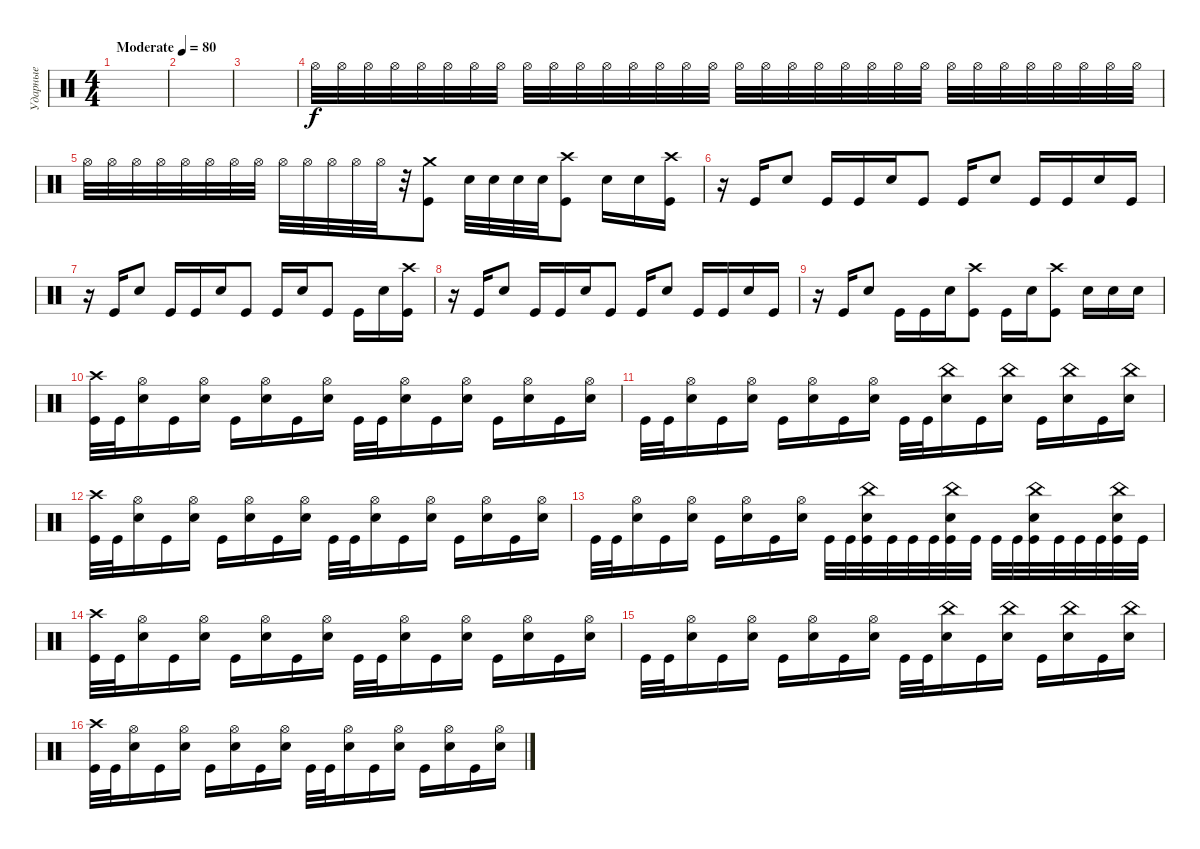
\track ("Ударные" "Ударные") {instrument percussion}
\staff {score}
\articulation defaults
\ts (4 4)
\tempo (80 "Moderate")
\clef neutral
\ks c
|
|
|
"Hi-Hat (open)".32{volume 13} "Hi-Hat (open)".32{volume 7} "Hi-Hat (open)".32 "Hi-Hat (open)".32 "Hi-Hat (open)".32{volume 13} "Hi-Hat (open)".32{volume 7} "Hi-Hat (open)".32 "Hi-Hat (open)".32 "Hi-Hat (open)".32{volume 13} "Hi-Hat (open)".32{volume 7} "Hi-Hat (open)".32 "Hi-Hat (open)".32 "Hi-Hat (open)".32{volume 13} "Hi-Hat (open)".32{volume 7} "Hi-Hat (open)".32 "Hi-Hat (open)".32 "Hi-Hat (open)".32{volume 13} "Hi-Hat (open)".32{volume 7} "Hi-Hat (open)".32 "Hi-Hat (open)".32 "Hi-Hat (open)".32{volume 13} "Hi-Hat (open)".32{volume 7} "Hi-Hat (open)".32 "Hi-Hat (open)".32 "Hi-Hat (open)".32{volume 13} "Hi-Hat (open)".32{volume 7} "Hi-Hat (open)".32 "Hi-Hat (open)".32 "Hi-Hat (open)".32{volume 12} "Hi-Hat (open)".32{volume 7} "Hi-Hat (open)".32 "Hi-Hat (open)".32 |
"Hi-Hat (open)".32{volume 13} "Hi-Hat (open)".32{volume 7} "Hi-Hat (open)".32 "Hi-Hat (open)".32 "Hi-Hat (open)".32{volume 13} "Hi-Hat (open)".32{volume 7} "Hi-Hat (open)".32 "Hi-Hat (open)".32 "Hi-Hat (open)".32{volume 13} "Hi-Hat (open)".32{volume 7} "Hi-Hat (open)".32 "Hi-Hat (open)".32 "Hi-Hat (open)".32{volume 13} r.32 ("Kick (hit)" "Crash medium (hit)").8 "Snare (hit) 2".32 "Snare (hit) 2".32 "Snare (hit) 2".32 "Snare (hit) 2".32 ("Kick (hit)" "Crash high (hit)").8 "Snare (hit) 2".16 "Snare (hit) 2".16 ("Kick (hit)" "Crash high (hit)").16 |
r.16 "Kick (hit)".16 "Snare (hit) 2".8 "Kick (hit)".16 "Kick (hit)".16 "Snare (hit) 2".16 "Kick (hit)".8 "Kick (hit)".16 "Snare (hit) 2".8 "Kick (hit)".16 "Kick (hit)".16 "Snare (hit) 2".16 "Kick (hit)".16 |
r.16 "Kick (hit)".16 "Snare (hit) 2".8 "Kick (hit)".16 "Kick (hit)".16 "Snare (hit) 2".16 "Kick (hit)".8 "Kick (hit)".16 "Snare (hit) 2".16 "Kick (hit)".8 "Kick (hit)".16 "Snare (hit) 2".16 ("Kick (hit)" "Crash high (hit)").16 |
r.16 "Kick (hit)".16 "Snare (hit) 2".8 "Kick (hit)".16 "Kick (hit)".16 "Snare (hit) 2".16 "Kick (hit)".8 "Kick (hit)".16 "Snare (hit) 2".8 "Kick (hit)".16 "Kick (hit)".16 "Snare (hit) 2".16 "Kick (hit)".16 |
r.16 "Kick (hit)".16 "Snare (hit) 2".8 "Kick (hit)".16 "Kick (hit)".16 "Snare (hit) 2".16 ("Kick (hit)" "Crash high (hit)").8 "Kick (hit)".16 "Snare (hit) 2".16 ("Kick (hit)" "Crash high (hit)").8 "Snare (hit) 2".16 "Snare (hit) 2".16 "Snare (hit) 2".16 |
("Kick (hit)" "Crash high (hit)").32 "Kick (hit)".32 ("Snare (hit) 2" "Hi-Hat (open)").16 "Kick (hit)".16 ("Snare (hit) 2" "Hi-Hat (open)").16 "Kick (hit)".16 ("Snare (hit) 2" "Hi-Hat (open)").16 "Kick (hit)".16 ("Snare (hit) 2" "Hi-Hat (open)").16 "Kick (hit)".32 "Kick (hit)".32 ("Snare (hit) 2" "Hi-Hat (open)").16 "Kick (hit)".16 ("Snare (hit) 2" "Hi-Hat (open)").16 "Kick (hit)".16 ("Snare (hit) 2" "Hi-Hat (open)").16 "Kick (hit)".16 ("Snare (hit) 2" "Hi-Hat (open)").16 |
"Kick (hit)".32 "Kick (hit)".32 ("Snare (hit) 2" "Hi-Hat (open)").16 "Kick (hit)".16 ("Snare (hit) 2" "Hi-Hat (open)").16 "Kick (hit)".16 ("Snare (hit) 2" "Hi-Hat (open)").16 "Kick (hit)".16 ("Snare (hit) 2" "Hi-Hat (open)").16 "Kick (hit)".32 "Kick (hit)".32 ("Snare (hit) 2" "China (hit)").16 "Kick (hit)".16 ("Snare (hit) 2" "China (hit)").16 "Kick (hit)".16 ("Snare (hit) 2" "China (hit)").16 "Kick (hit)".16 ("Snare (hit) 2" "China (hit)").16 |
("Kick (hit)" "Crash high (hit)").32 "Kick (hit)".32 ("Snare (hit) 2" "Hi-Hat (open)").16 "Kick (hit)".16 ("Snare (hit) 2" "Hi-Hat (open)").16 "Kick (hit)".16 ("Snare (hit) 2" "Hi-Hat (open)").16 "Kick (hit)".16 ("Snare (hit) 2" "Hi-Hat (open)").16 "Kick (hit)".32 "Kick (hit)".32 ("Snare (hit) 2" "Hi-Hat (open)").16 "Kick (hit)".16 ("Snare (hit) 2" "Hi-Hat (open)").16 "Kick (hit)".16 ("Snare (hit) 2" "Hi-Hat (open)").16 "Kick (hit)".16 ("Snare (hit) 2" "Hi-Hat (open)").16 |
"Kick (hit)".32 "Kick (hit)".32 ("Snare (hit) 2" "Hi-Hat (open)").16 "Kick (hit)".16 ("Snare (hit) 2" "Hi-Hat (open)").16 "Kick (hit)".16 ("Snare (hit) 2" "Hi-Hat (open)").16 "Kick (hit)".16 ("Snare (hit) 2" "Hi-Hat (open)").16 "Kick (hit)".32 "Kick (hit)".32 ("Kick (hit)" "Snare (hit) 2" "China (hit)").32 "Kick (hit)".32 "Kick (hit)".32 "Kick (hit)".32 ("Kick (hit)" "Snare (hit) 2" "China (hit)").32 "Kick (hit)".32 "Kick (hit)".32 "Kick (hit)".32 ("Kick (hit)" "Snare (hit) 2" "China (hit)").32 "Kick (hit)".32 "Kick (hit)".32 "Kick (hit)".32 ("Kick (hit)" "Snare (hit) 2" "China (hit)").32 "Kick (hit)".32 |
("Kick (hit)" "Crash high (hit)").32 "Kick (hit)".32 ("Snare (hit) 2" "Hi-Hat (open)").16 "Kick (hit)".16 ("Snare (hit) 2" "Hi-Hat (open)").16 "Kick (hit)".16 ("Snare (hit) 2" "Hi-Hat (open)").16 "Kick (hit)".16 ("Snare (hit) 2" "Hi-Hat (open)").16 "Kick (hit)".32 "Kick (hit)".32 ("Snare (hit) 2" "Hi-Hat (open)").16 "Kick (hit)".16 ("Snare (hit) 2" "Hi-Hat (open)").16 "Kick (hit)".16 ("Snare (hit) 2" "Hi-Hat (open)").16 "Kick (hit)".16 ("Snare (hit) 2" "Hi-Hat (open)").16 |
"Kick (hit)".32 "Kick (hit)".32 ("Snare (hit) 2" "Hi-Hat (open)").16 "Kick (hit)".16 ("Snare (hit) 2" "Hi-Hat (open)").16 "Kick (hit)".16 ("Snare (hit) 2" "Hi-Hat (open)").16 "Kick (hit)".16 ("Snare (hit) 2" "Hi-Hat (open)").16 "Kick (hit)".32 "Kick (hit)".32 ("Snare (hit) 2" "China (hit)").16 "Kick (hit)".16 ("Snare (hit) 2" "China (hit)").16 "Kick (hit)".16 ("Snare (hit) 2" "China (hit)").16 "Kick (hit)".16 ("Snare (hit) 2" "China (hit)").16 |
("Kick (hit)" "Crash high (hit)").32 "Kick (hit)".32 ("Snare (hit) 2" "Hi-Hat (open)").16 "Kick (hit)".16 ("Snare (hit) 2" "Hi-Hat (open)").16 "Kick (hit)".16 ("Snare (hit) 2" "Hi-Hat (open)").16 "Kick (hit)".16 ("Snare (hit) 2" "Hi-Hat (open)").16 "Kick (hit)".32 "Kick (hit)".32 ("Snare (hit) 2" "Hi-Hat (open)").16 "Kick (hit)".16 ("Snare (hit) 2" "Hi-Hat (open)").16 "Kick (hit)".16 ("Snare (hit) 2" "Hi-Hat (open)").16 "Kick (hit)".16 ("Snare (hit) 2" "Hi-Hat (open)").16
